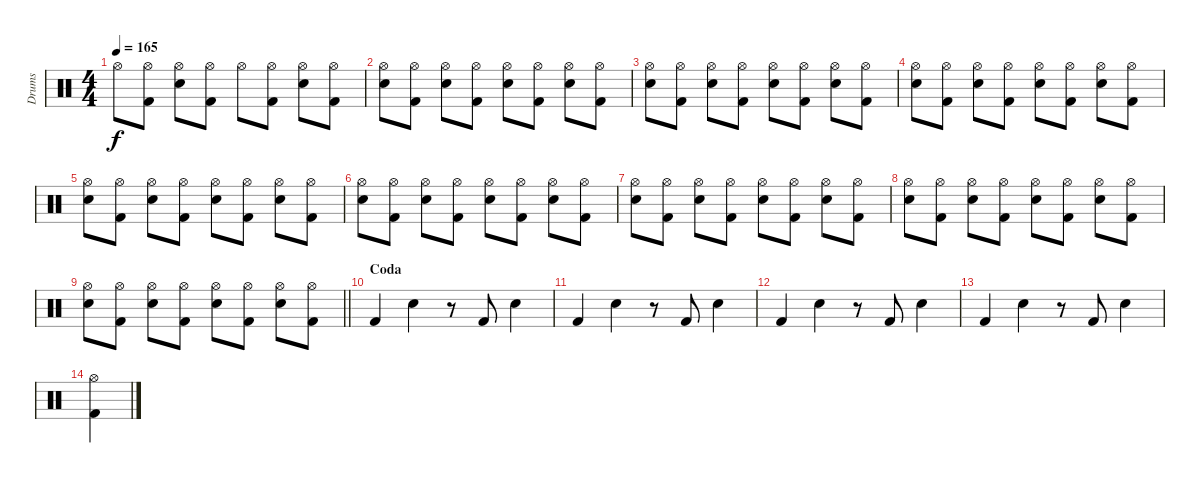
\track ("Drums" "Drums") {instrument percussion}
\staff {score}
\articulation defaults
\ts (4 4)
\tempo 165
\clef neutral
\ks c "Hi-Hat (open)".8{dy f}
("Hi-Hat (open)" "Kick (hit) 2").8 ("Hi-Hat (open)" "Snare (hit) 2").8 ("Hi-Hat (open)" "Kick (hit) 2").8 "Hi-Hat (open)".8 ("Hi-Hat (open)" "Kick (hit) 2").8 ("Hi-Hat (open)" "Snare (hit) 2").8 ("Hi-Hat (open)" "Kick (hit) 2").8 |
("Snare (hit) 2" "Hi-Hat (open)").8 ("Kick (hit) 2" "Hi-Hat (open)").8 ("Snare (hit) 2" "Hi-Hat (open)").8 ("Kick (hit) 2" "Hi-Hat (open)").8 ("Hi-Hat (open)" "Snare (hit) 2").8 ("Hi-Hat (open)" "Kick (hit) 2").8 ("Hi-Hat (open)" "Snare (hit) 2").8 ("Hi-Hat (open)" "Kick (hit) 2").8 |
("Hi-Hat (open)" "Snare (hit) 2").8 ("Hi-Hat (open)" "Kick (hit) 2").8 ("Hi-Hat (open)" "Snare (hit) 2").8 ("Hi-Hat (open)" "Kick (hit) 2").8 ("Hi-Hat (open)" "Snare (hit) 2").8 ("Hi-Hat (open)" "Kick (hit) 2").8 ("Hi-Hat (open)" "Snare (hit) 2").8 ("Hi-Hat (open)" "Kick (hit) 2").8 |
("Hi-Hat (open)" "Snare (hit) 2").8 ("Hi-Hat (open)" "Kick (hit) 2").8 ("Hi-Hat (open)" "Snare (hit) 2").8 ("Hi-Hat (open)" "Kick (hit) 2").8 ("Hi-Hat (open)" "Snare (hit) 2").8 ("Hi-Hat (open)" "Kick (hit) 2").8 ("Hi-Hat (open)" "Snare (hit) 2").8 ("Hi-Hat (open)" "Kick (hit) 2").8 |
("Hi-Hat (open)" "Snare (hit) 2").8 ("Hi-Hat (open)" "Kick (hit) 2").8 ("Hi-Hat (open)" "Snare (hit) 2").8 ("Hi-Hat (open)" "Kick (hit) 2").8 ("Hi-Hat (open)" "Snare (hit) 2").8 ("Hi-Hat (open)" "Kick (hit) 2").8 ("Hi-Hat (open)" "Snare (hit) 2").8 ("Hi-Hat (open)" "Kick (hit) 2").8 |
("Hi-Hat (open)" "Snare (hit) 2").8 ("Hi-Hat (open)" "Kick (hit) 2").8 ("Hi-Hat (open)" "Snare (hit) 2").8 ("Hi-Hat (open)" "Kick (hit) 2").8 ("Hi-Hat (open)" "Snare (hit) 2").8 ("Hi-Hat (open)" "Kick (hit) 2").8 ("Hi-Hat (open)" "Snare (hit) 2").8 ("Hi-Hat (open)" "Kick (hit) 2").8 |
("Hi-Hat (open)" "Snare (hit) 2").8 ("Hi-Hat (open)" "Kick (hit) 2").8 ("Hi-Hat (open)" "Snare (hit) 2").8 ("Hi-Hat (open)" "Kick (hit) 2").8 ("Hi-Hat (open)" "Snare (hit) 2").8 ("Hi-Hat (open)" "Kick (hit) 2").8 ("Hi-Hat (open)" "Snare (hit) 2").8 ("Hi-Hat (open)" "Kick (hit) 2").8 |
("Hi-Hat (open)" "Snare (hit) 2").8 ("Hi-Hat (open)" "Kick (hit) 2").8 ("Hi-Hat (open)" "Snare (hit) 2").8 ("Hi-Hat (open)" "Kick (hit) 2").8 ("Hi-Hat (open)" "Snare (hit) 2").8 ("Hi-Hat (open)" "Kick (hit) 2").8 ("Hi-Hat (open)" "Snare (hit) 2").8 ("Hi-Hat (open)" "Kick (hit) 2").8 |
\barLineRight lightlight
("Hi-Hat (open)" "Snare (hit) 2").8 ("Hi-Hat (open)" "Kick (hit) 2").8 ("Hi-Hat (open)" "Snare (hit) 2").8 ("Hi-Hat (open)" "Kick (hit) 2").8 ("Hi-Hat (open)" "Snare (hit) 2").8 ("Hi-Hat (open)" "Kick (hit) 2").8 ("Hi-Hat (open)" "Snare (hit) 2").8 ("Hi-Hat (open)" "Kick (hit) 2").8 |
\section ("" "Coda")
"Kick (hit) 2".4 "Snare (hit) 2".4 r.8 "Kick (hit) 2".8 "Snare (hit) 2".4 |
"Kick (hit) 2".4 "Snare (hit) 2".4 r.8 "Kick (hit) 2".8 "Snare (hit) 2".4 |
"Kick (hit) 2".4 "Snare (hit) 2".4 r.8 "Kick (hit) 2".8 "Snare (hit) 2".4 |
"Kick (hit) 2".4 "Snare (hit) 2".4 r.8 "Kick (hit) 2".8 "Snare (hit) 2".4 |
("Kick (hit) 2" "Hi-Hat (open)").4
